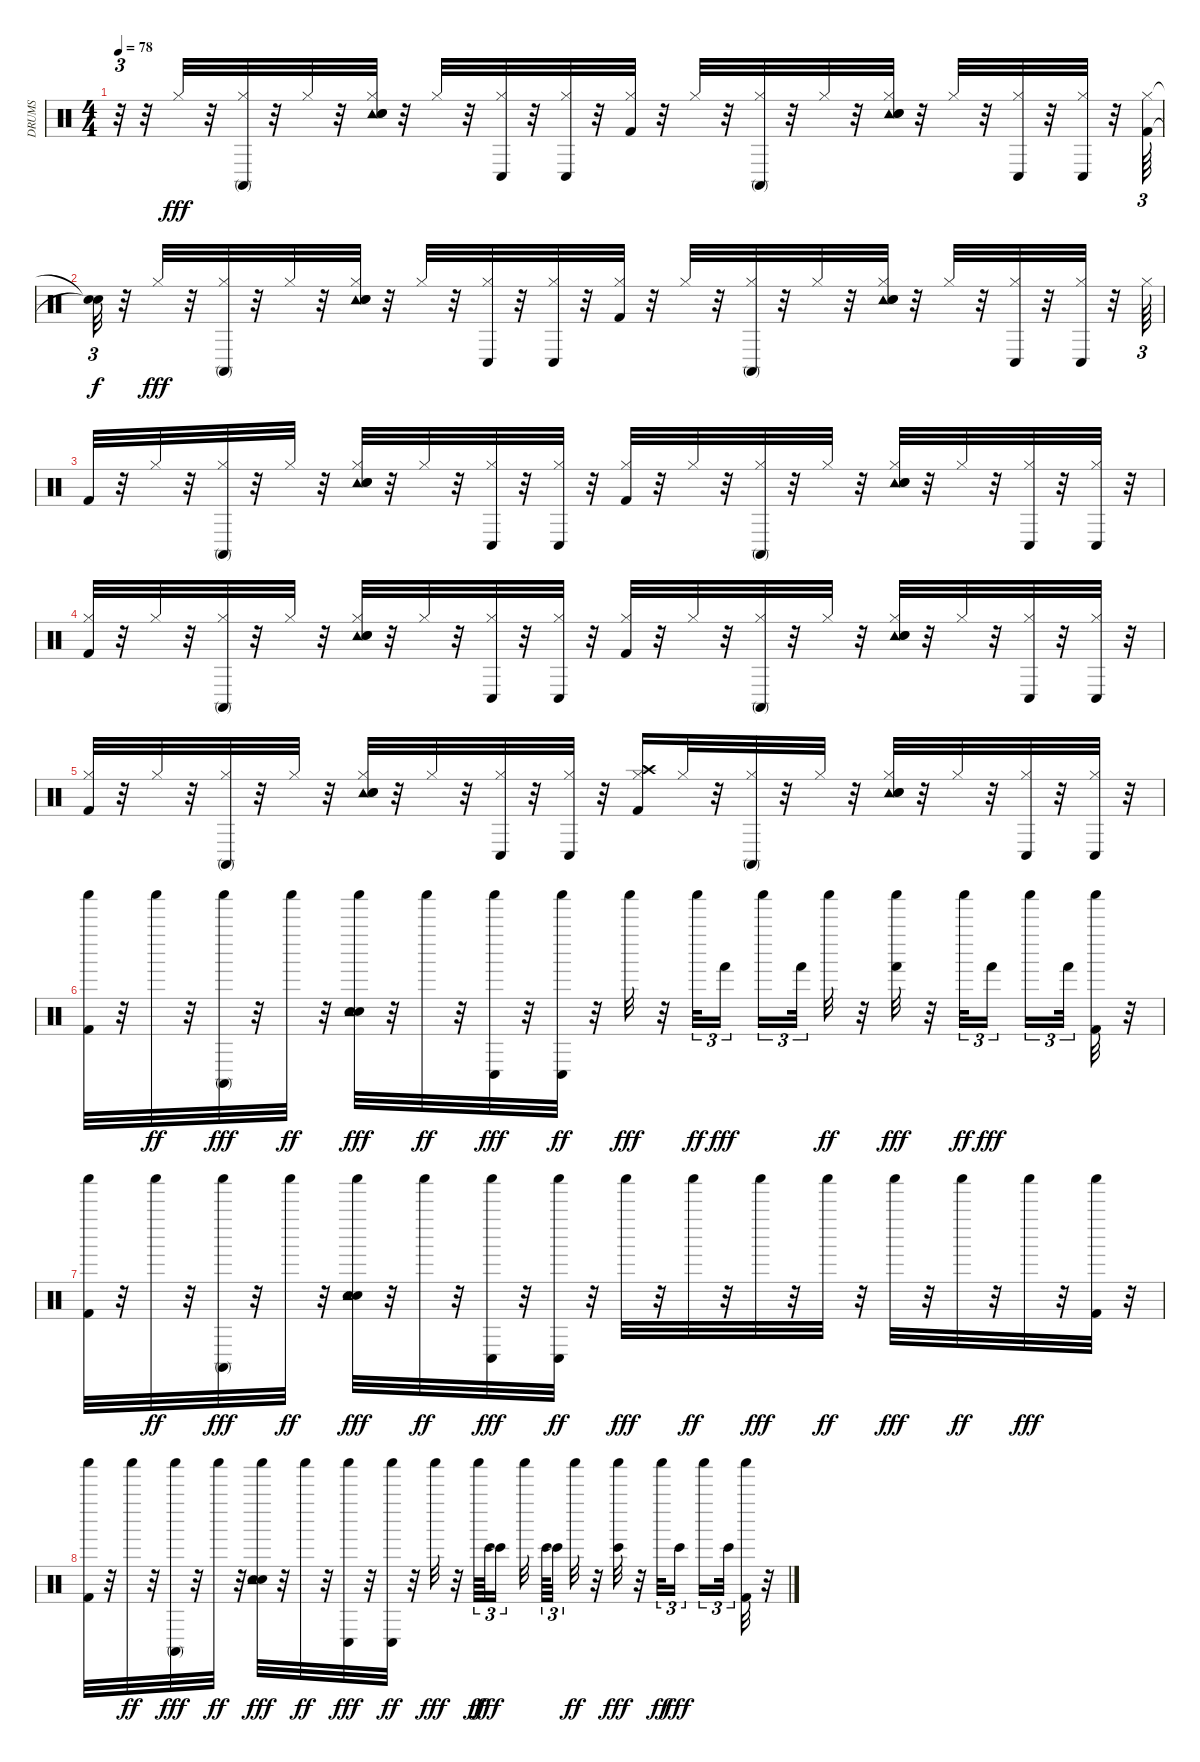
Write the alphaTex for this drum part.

\track ("DRUMS" "DRUMS") {instrument percussion}
\staff {score}
\articulation defaults
\ts (4 4)
\tempo 78
\clef neutral
\ks c
r.32{tu (3 2) dy fff} r.32 "Hi-Hat (closed)".32 r.32 ("Conga high (mute)" "Hi-Hat (closed)").32 r.32 "Hi-Hat (closed)".32 r.32 ("Hi-Hat (closed)" "Tambourine (hit)" "Snare (hit)" "Snare (hit) 2").32 r.32 "Hi-Hat (closed)".32 r.32 ("Conga low (hit)" "Hi-Hat (closed)").32 r.32 ("Conga low (hit)" "Hi-Hat (closed)").32 r.32 ("Hi-Hat (closed)" "Kick (hit) 2").32 r.32 "Hi-Hat (closed)".32 r.32 ("Conga high (mute)" "Hi-Hat (closed)").32 r.32 "Hi-Hat (closed)".32 r.32 ("Hi-Hat (closed)" "Tambourine (hit)" "Snare (hit) 2" "Snare (hit)").32 r.32 "Hi-Hat (closed)".32 r.32 ("Conga low (hit)" "Hi-Hat (closed)").32 r.32 ("Conga low (hit)" "Hi-Hat (closed)").32 r.32 ("Hi-Hat (closed)" "Kick (hit) 2").64{tu (3 2)} |
("Snare (hit)"{t} "Snare (hit)"{t}).32{tu (3 2) dy f} r.32 "Hi-Hat (closed)".32{dy fff} r.32 ("Conga high (mute)" "Hi-Hat (closed)").32 r.32 "Hi-Hat (closed)".32 r.32 ("Hi-Hat (closed)" "Tambourine (hit)" "Snare (hit)" "Snare (hit) 2").32 r.32 "Hi-Hat (closed)".32 r.32 ("Conga low (hit)" "Hi-Hat (closed)").32 r.32 ("Conga low (hit)" "Hi-Hat (closed)").32 r.32 ("Hi-Hat (closed)" "Kick (hit) 2").32 r.32 "Hi-Hat (closed)".32 r.32 ("Conga high (mute)" "Hi-Hat (closed)").32 r.32 "Hi-Hat (closed)".32 r.32 ("Hi-Hat (closed)" "Tambourine (hit)" "Snare (hit) 2" "Snare (hit)").32 r.32 "Hi-Hat (closed)".32 r.32 ("Conga low (hit)" "Hi-Hat (closed)").32 r.32 ("Conga low (hit)" "Hi-Hat (closed)").32 r.32 "Hi-Hat (closed)".64{tu (3 2)} |
"Kick (hit) 2".32 r.32 "Hi-Hat (closed)".32 r.32 ("Conga high (mute)" "Hi-Hat (closed)").32 r.32 "Hi-Hat (closed)".32 r.32 ("Hi-Hat (closed)" "Tambourine (hit)" "Snare (hit)" "Snare (hit) 2").32 r.32 "Hi-Hat (closed)".32 r.32 ("Conga low (hit)" "Hi-Hat (closed)").32 r.32 ("Conga low (hit)" "Hi-Hat (closed)").32 r.32 ("Hi-Hat (closed)" "Kick (hit) 2").32 r.32 "Hi-Hat (closed)".32 r.32 ("Conga high (mute)" "Hi-Hat (closed)").32 r.32 "Hi-Hat (closed)".32 r.32 ("Hi-Hat (closed)" "Tambourine (hit)" "Snare (hit) 2" "Snare (hit)").32 r.32 "Hi-Hat (closed)".32 r.32 ("Conga low (hit)" "Hi-Hat (closed)").32 r.32 ("Conga low (hit)" "Hi-Hat (closed)").32 r.32 |
("Hi-Hat (closed)" "Kick (hit) 2").32 r.32 "Hi-Hat (closed)".32 r.32 ("Conga high (mute)" "Hi-Hat (closed)").32 r.32 "Hi-Hat (closed)".32 r.32 ("Hi-Hat (closed)" "Tambourine (hit)" "Snare (hit)" "Snare (hit) 2").32 r.32 "Hi-Hat (closed)".32 r.32 ("Conga low (hit)" "Hi-Hat (closed)").32 r.32 ("Conga low (hit)" "Hi-Hat (closed)").32 r.32 ("Hi-Hat (closed)" "Kick (hit) 2").32 r.32 "Hi-Hat (closed)".32 r.32 ("Conga high (mute)" "Hi-Hat (closed)").32 r.32 "Hi-Hat (closed)".32 r.32 ("Hi-Hat (closed)" "Tambourine (hit)" "Snare (hit) 2" "Snare (hit)").32 r.32 "Hi-Hat (closed)".32 r.32 ("Conga low (hit)" "Hi-Hat (closed)").32 r.32 ("Conga low (hit)" "Hi-Hat (closed)").32 r.32 |
("Hi-Hat (closed)" "Kick (hit) 2").32 r.32 "Hi-Hat (closed)".32 r.32 ("Conga high (mute)" "Hi-Hat (closed)").32 r.32 "Hi-Hat (closed)".32 r.32 ("Hi-Hat (closed)" "Tambourine (hit)" "Snare (hit)" "Snare (hit) 2").32 r.32 "Hi-Hat (closed)".32 r.32 ("Conga low (hit)" "Hi-Hat (closed)").32 r.32 ("Conga low (hit)" "Hi-Hat (closed)").32 r.32 ("Hi-Hat (closed)" "Kick (hit) 2" "Crash high (hit)").16 "Hi-Hat (closed)".32 r.32 ("Conga high (mute)" "Hi-Hat (closed)").32 r.32 "Hi-Hat (closed)".32 r.32 ("Hi-Hat (closed)" "Tambourine (hit)" "Snare (hit) 2" "Snare (hit)").32 r.32 "Hi-Hat (closed)".32 r.32 ("Conga low (hit)" "Hi-Hat (closed)").32 r.32 ("Conga low (hit)" "Hi-Hat (closed)").32 r.32 |
("Shaker (hit)" "Kick (hit) 2").32 r.32 "Shaker (hit)".32{dy ff} r.32 ("Conga high (mute)" "Shaker (hit)").32{dy fff} r.32 "Shaker (hit)".32{dy ff} r.32 ("Snare (hit) 2" "Tambourine (hit)" "Snare (hit)" "Shaker (hit)").32{dy fff} r.32 "Shaker (hit)".32{dy ff} r.32 ("Conga low (hit)" "Shaker (hit)").32{dy fff} r.32 ("Conga low (hit)" "Shaker (hit)").32{dy ff} r.32 "Shaker (hit)".32{dy fff} r.32 "Shaker (hit)".32{tu (3 2) dy ff} "Hand (hit)".16{tu (3 2) dy fff} "Shaker (hit)".16{tu (3 2)} "Hand (hit)".32{tu (3 2)} "Shaker (hit)".32{dy ff} r.32 ("Hand (hit)" "Shaker (hit)").32{dy fff} r.32 "Shaker (hit)".32{tu (3 2) dy ff} "Hand (hit)".16{tu (3 2) dy fff} "Shaker (hit)".16{tu (3 2)} "Hand (hit)".32{tu (3 2)} ("Shaker (hit)" "Kick (hit) 2").32 r.32 |
("Shaker (hit)" "Kick (hit) 2").32 r.32 "Shaker (hit)".32{dy ff} r.32 ("Conga high (mute)" "Shaker (hit)").32{dy fff} r.32 "Shaker (hit)".32{dy ff} r.32 ("Snare (hit) 2" "Tambourine (hit)" "Snare (hit)" "Shaker (hit)").32{dy fff} r.32 "Shaker (hit)".32{dy ff} r.32 ("Conga low (hit)" "Shaker (hit)").32{dy fff} r.32 ("Conga low (hit)" "Shaker (hit)").32{dy ff} r.32 "Shaker (hit)".32{dy fff} r.32 "Shaker (hit)".32{dy ff} r.32 "Shaker (hit)".32{dy fff} r.32 "Shaker (hit)".32{dy ff} r.32 "Shaker (hit)".32{dy fff} r.32 "Shaker (hit)".32{dy ff} r.32 "Shaker (hit)".32{dy fff} r.32 ("Shaker (hit)" "Kick (hit) 2").32 r.32 |
("Shaker (hit)" "Kick (hit) 2").32 r.32 "Shaker (hit)".32{dy ff} r.32 ("Conga high (mute)" "Shaker (hit)").32{dy fff} r.32 "Shaker (hit)".32{dy ff} r.32 ("Snare (hit) 2" "Tambourine (hit)" "Snare (hit)" "Shaker (hit)").32{dy fff} r.32 "Shaker (hit)".32{dy ff} r.32 ("Conga low (hit)" "Shaker (hit)").32{dy fff} r.32 ("Conga low (hit)" "Shaker (hit)").32{dy ff} r.32 "Shaker (hit)".32{dy fff} r.32 "Shaker (hit)".64{tu (3 2) dy ff} "Bongo High (hit)".64{tu (3 2) dy fff} "Bongo High (hit)".16{tu (3 2)} "Shaker (hit)".32 "Bongo High (hit)".64{tu (3 2)} "Bongo High (hit)".32{tu (3 2)} "Shaker (hit)".32{dy ff} r.32 ("Bongo High (hit)" "Shaker (hit)").32{dy fff} r.32 "Shaker (hit)".32{tu (3 2) dy ff} "Bongo High (hit)".16{tu (3 2) dy fff} "Shaker (hit)".16{tu (3 2)} "Bongo High (hit)".32{tu (3 2)} ("Shaker (hit)" "Kick (hit) 2").32 r.32
